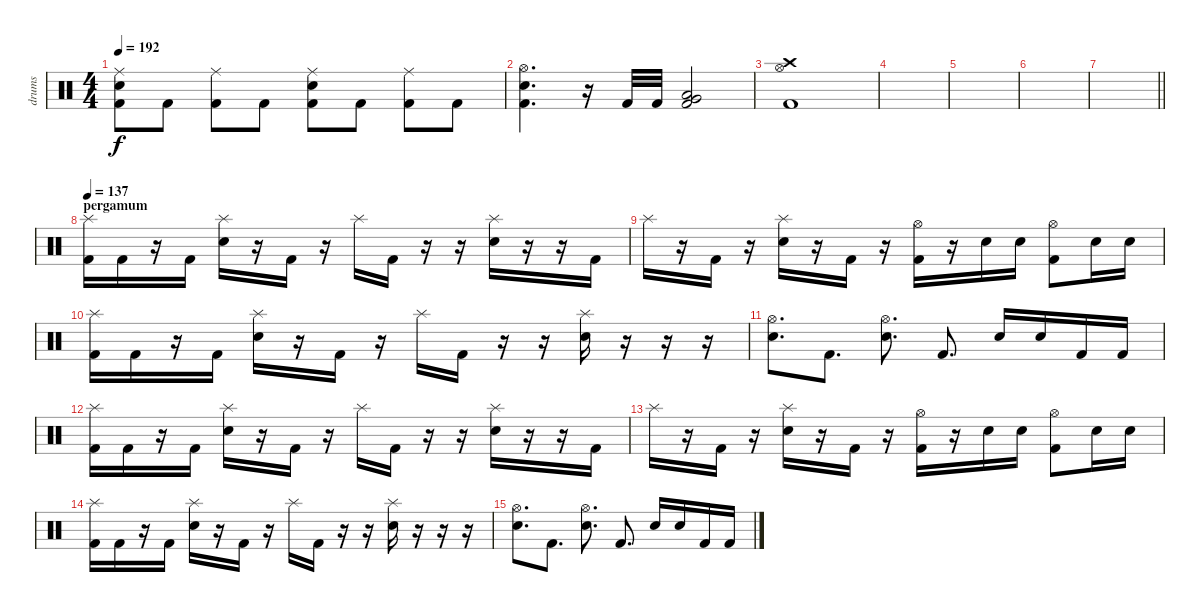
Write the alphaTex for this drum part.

\track ("drums" "drums") {instrument percussion}
\staff {score}
\articulation defaults
\ts (4 4)
\tempo 192
\clef neutral
\ks c
("Ride (middle)" "Electric Snare (hit)" "Kick (hit) 2").8{dy f} "Kick (hit) 2".8 ("Ride (middle)" "Kick (hit) 2").8 "Kick (hit) 2".8 ("Ride (middle)" "Electric Snare (hit)" "Kick (hit) 2").8 "Kick (hit) 2".8 ("Ride (middle)" "Kick (hit) 2").8 "Kick (hit) 2".8 |
("Hi-Hat (open)" "Electric Snare (hit)" "Kick (hit) 2").4{d} r.16 "Kick (hit) 2".32 "Kick (hit) 2".32 ("Low Floor Tom (hit)" "Very Low Tom (hit)" "Kick (hit) 2").2 |
("Hi-Hat (open)" "Crash high (hit)" "Kick (hit) 2").1 |
|
|
|
\barLineRight lightlight
|
\section ("" "pergamum")
\tempo 137
("Splash (hit)" "Kick (hit) 2").16 "Kick (hit) 2".16 r.16 "Kick (hit) 2".16 ("Splash (hit)" "Electric Snare (hit)").16 r.16 "Kick (hit) 2".16 r.16 "Splash (hit)".16 "Kick (hit) 2".16 r.16 r.16 ("Splash (hit)" "Electric Snare (hit)").16 r.16 r.16 "Kick (hit) 2".16 |
"Splash (hit)".16 r.16 "Kick (hit) 2".16 r.16 ("Splash (hit)" "Electric Snare (hit)").16 r.16 "Kick (hit) 2".16 r.16 ("Hi-Hat (open)" "Kick (hit) 2").16 r.16 "Electric Snare (hit)".16 "Electric Snare (hit)".16 ("Hi-Hat (open)" "Kick (hit) 2").8 "Electric Snare (hit)".16 "Electric Snare (hit)".16 |
("Splash (hit)" "Kick (hit) 2").16 "Kick (hit) 2".16 r.16 "Kick (hit) 2".16 ("Splash (hit)" "Electric Snare (hit)").16 r.16 "Kick (hit) 2".16 r.16 "Splash (hit)".16 "Kick (hit) 2".16 r.16 r.16 ("Splash (hit)" "Electric Snare (hit)").16 r.16 r.16 r.16 |
("Hi-Hat (open)" "Electric Snare (hit)").8{d} "Kick (hit) 2".8{d} ("Hi-Hat (open)" "Electric Snare (hit)").8{d} "Kick (hit) 2".8{d} "Electric Snare (hit)".16 "Electric Snare (hit)".16 "Kick (hit) 2".16 "Kick (hit) 2".16 |
("Splash (hit)" "Kick (hit) 2").16 "Kick (hit) 2".16 r.16 "Kick (hit) 2".16 ("Splash (hit)" "Electric Snare (hit)").16 r.16 "Kick (hit) 2".16 r.16 "Splash (hit)".16 "Kick (hit) 2".16 r.16 r.16 ("Splash (hit)" "Electric Snare (hit)").16 r.16 r.16 "Kick (hit) 2".16 |
"Splash (hit)".16 r.16 "Kick (hit) 2".16 r.16 ("Splash (hit)" "Electric Snare (hit)").16 r.16 "Kick (hit) 2".16 r.16 ("Hi-Hat (open)" "Kick (hit) 2").16 r.16 "Electric Snare (hit)".16 "Electric Snare (hit)".16 ("Hi-Hat (open)" "Kick (hit) 2").8 "Electric Snare (hit)".16 "Electric Snare (hit)".16 |
("Splash (hit)" "Kick (hit) 2").16 "Kick (hit) 2".16 r.16 "Kick (hit) 2".16 ("Splash (hit)" "Electric Snare (hit)").16 r.16 "Kick (hit) 2".16 r.16 "Splash (hit)".16 "Kick (hit) 2".16 r.16 r.16 ("Splash (hit)" "Electric Snare (hit)").16 r.16 r.16 r.16 |
("Hi-Hat (open)" "Electric Snare (hit)").8{d} "Kick (hit) 2".8{d} ("Hi-Hat (open)" "Electric Snare (hit)").8{d} "Kick (hit) 2".8{d} "Electric Snare (hit)".16 "Electric Snare (hit)".16 "Kick (hit) 2".16 "Kick (hit) 2".16
